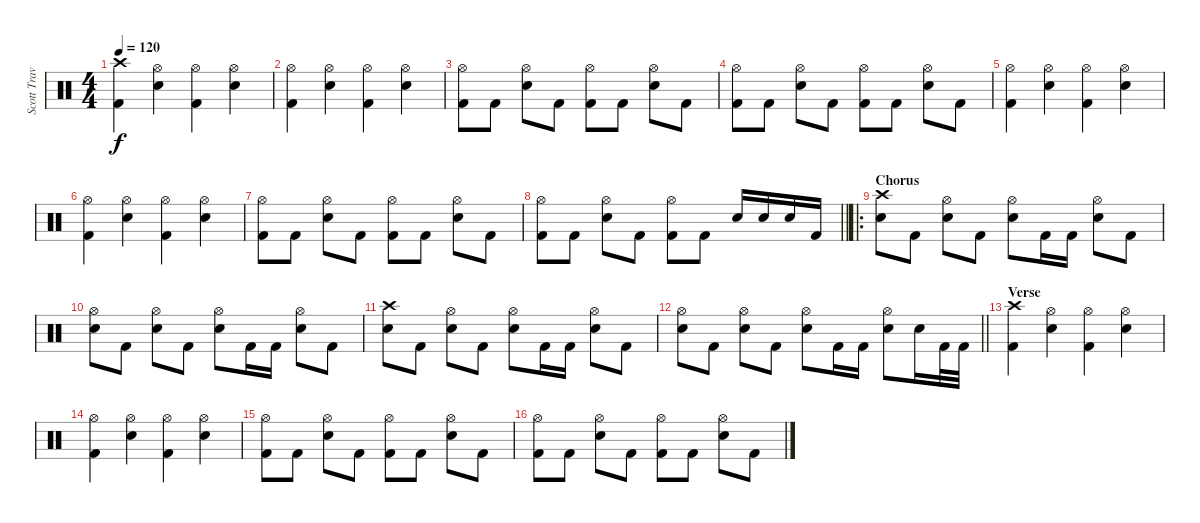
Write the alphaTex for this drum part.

\track ("Scott Travis" "Scott Trav") {instrument percussion}
\staff {score}
\articulation defaults
\ts (4 4)
\tempo 120
\clef neutral
\ks c
("Crash high (hit)" "Kick (hit) 2").4{dy f} ("Hi-Hat (open)" "Snare (hit) 2").4 ("Hi-Hat (open)" "Kick (hit) 2").4 ("Hi-Hat (open)" "Snare (hit) 2").4 |
("Hi-Hat (open)" "Kick (hit) 2").4 ("Hi-Hat (open)" "Snare (hit) 2").4 ("Hi-Hat (open)" "Kick (hit) 2").4 ("Hi-Hat (open)" "Snare (hit) 2").4 |
("Hi-Hat (open)" "Kick (hit) 2").8 "Kick (hit) 2".8 ("Hi-Hat (open)" "Snare (hit) 2").8 "Kick (hit) 2".8 ("Hi-Hat (open)" "Kick (hit) 2").8 "Kick (hit) 2".8 ("Hi-Hat (open)" "Snare (hit) 2").8 "Kick (hit) 2".8 |
("Hi-Hat (open)" "Kick (hit) 2").8 "Kick (hit) 2".8 ("Hi-Hat (open)" "Snare (hit) 2").8 "Kick (hit) 2".8 ("Hi-Hat (open)" "Kick (hit) 2").8 "Kick (hit) 2".8 ("Hi-Hat (open)" "Snare (hit) 2").8 "Kick (hit) 2".8 |
("Hi-Hat (open)" "Kick (hit) 2").4 ("Hi-Hat (open)" "Snare (hit) 2").4 ("Hi-Hat (open)" "Kick (hit) 2").4 ("Hi-Hat (open)" "Snare (hit) 2").4 |
("Hi-Hat (open)" "Kick (hit) 2").4 ("Hi-Hat (open)" "Snare (hit) 2").4 ("Hi-Hat (open)" "Kick (hit) 2").4 ("Hi-Hat (open)" "Snare (hit) 2").4 |
("Hi-Hat (open)" "Kick (hit) 2").8 "Kick (hit) 2".8 ("Hi-Hat (open)" "Snare (hit) 2").8 "Kick (hit) 2".8 ("Hi-Hat (open)" "Kick (hit) 2").8 "Kick (hit) 2".8 ("Hi-Hat (open)" "Snare (hit) 2").8 "Kick (hit) 2".8 |
\barLineRight lightlight
("Hi-Hat (open)" "Kick (hit) 2").8 "Kick (hit) 2".8 ("Hi-Hat (open)" "Snare (hit) 2").8 "Kick (hit) 2".8 ("Hi-Hat (open)" "Kick (hit) 2").8 "Kick (hit) 2".8 "Snare (hit) 2".16 "Snare (hit) 2".16 "Snare (hit) 2".16 "Kick (hit) 2".16 |
\ro
\section ("" "Chorus")
("Crash high (hit)" "Snare (hit) 2").8 "Kick (hit) 2".8 ("Hi-Hat (open)" "Snare (hit) 2").8 "Kick (hit) 2".8 ("Hi-Hat (open)" "Snare (hit) 2").8 "Kick (hit) 2".16 "Kick (hit) 2".16 ("Hi-Hat (open)" "Snare (hit) 2").8 "Kick (hit) 2".8 |
("Hi-Hat (open)" "Snare (hit) 2").8 "Kick (hit) 2".8 ("Hi-Hat (open)" "Snare (hit) 2").8 "Kick (hit) 2".8 ("Hi-Hat (open)" "Snare (hit) 2").8 "Kick (hit) 2".16 "Kick (hit) 2".16 ("Hi-Hat (open)" "Snare (hit) 2").8 "Kick (hit) 2".8 |
("Crash high (hit)" "Snare (hit) 2").8 "Kick (hit) 2".8 ("Hi-Hat (open)" "Snare (hit) 2").8 "Kick (hit) 2".8 ("Hi-Hat (open)" "Snare (hit) 2").8 "Kick (hit) 2".16 "Kick (hit) 2".16 ("Hi-Hat (open)" "Snare (hit) 2").8 "Kick (hit) 2".8 |
\barLineRight lightlight
("Hi-Hat (open)" "Snare (hit) 2").8 "Kick (hit) 2".8 ("Hi-Hat (open)" "Snare (hit) 2").8 "Kick (hit) 2".8 ("Hi-Hat (open)" "Snare (hit) 2").8 "Kick (hit) 2".16 "Kick (hit) 2".16 ("Hi-Hat (open)" "Snare (hit) 2").8 "Snare (hit) 2".16 "Kick (hit) 2".32 "Kick (hit) 2".32 |
\section ("" "Verse")
("Crash high (hit)" "Kick (hit) 2").4 ("Hi-Hat (open)" "Snare (hit) 2").4 ("Hi-Hat (open)" "Kick (hit) 2").4 ("Hi-Hat (open)" "Snare (hit) 2").4 |
("Hi-Hat (open)" "Kick (hit) 2").4 ("Hi-Hat (open)" "Snare (hit) 2").4 ("Hi-Hat (open)" "Kick (hit) 2").4 ("Hi-Hat (open)" "Snare (hit) 2").4 |
("Hi-Hat (open)" "Kick (hit) 2").8 "Kick (hit) 2".8 ("Hi-Hat (open)" "Snare (hit) 2").8 "Kick (hit) 2".8 ("Hi-Hat (open)" "Kick (hit) 2").8 "Kick (hit) 2".8 ("Hi-Hat (open)" "Snare (hit) 2").8 "Kick (hit) 2".8 |
("Hi-Hat (open)" "Kick (hit) 2").8 "Kick (hit) 2".8 ("Hi-Hat (open)" "Snare (hit) 2").8 "Kick (hit) 2".8 ("Hi-Hat (open)" "Kick (hit) 2").8 "Kick (hit) 2".8 ("Hi-Hat (open)" "Snare (hit) 2").8 "Kick (hit) 2".8
